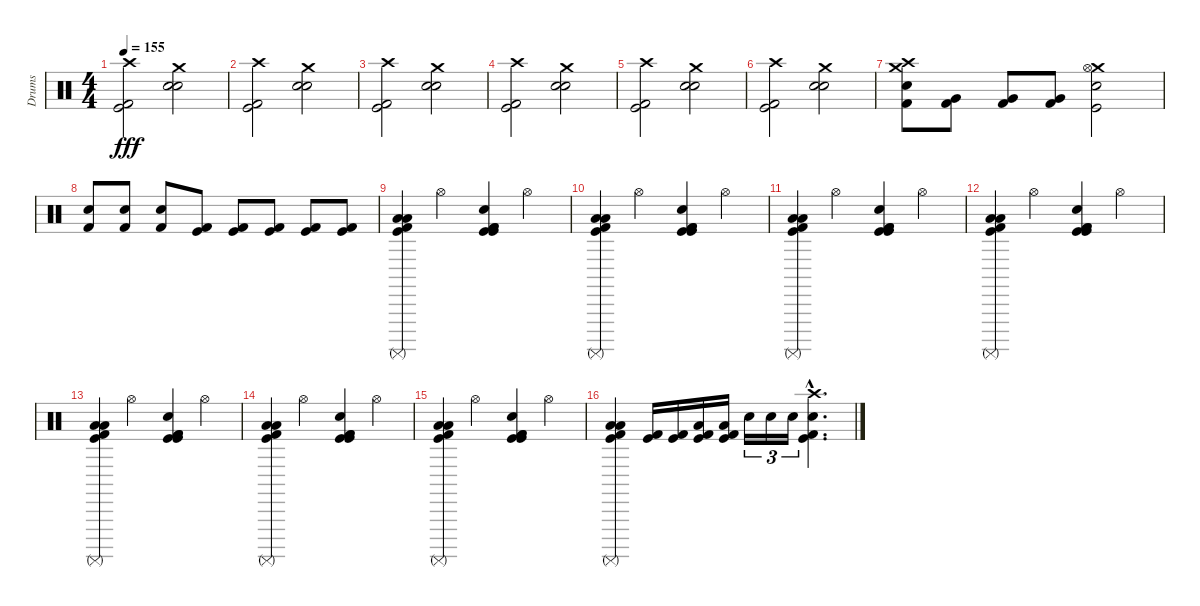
\track ("Drums" "Drums") {instrument percussion}
\staff {score}
\articulation defaults
\ts (4 4)
\tempo 155
\clef neutral
\ks c
("Crash high (hit)" "Kick (hit)" "Kick (hit) 2").2{dy fff} ("Crash medium (hit)" "Snare (hit) 2" "Electric Snare (hit)").2 |
("Crash high (hit)" "Kick (hit)" "Kick (hit) 2").2 ("Crash medium (hit)" "Snare (hit) 2" "Electric Snare (hit)").2 |
("Crash high (hit)" "Kick (hit)" "Kick (hit) 2").2 ("Crash medium (hit)" "Snare (hit) 2" "Electric Snare (hit)").2 |
("Crash high (hit)" "Kick (hit)" "Kick (hit) 2").2 ("Crash medium (hit)" "Snare (hit) 2" "Electric Snare (hit)").2 |
("Crash high (hit)" "Kick (hit)" "Kick (hit) 2").2 ("Crash medium (hit)" "Snare (hit) 2" "Electric Snare (hit)").2 |
("Crash high (hit)" "Kick (hit)" "Kick (hit) 2").2 ("Crash medium (hit)" "Snare (hit) 2" "Electric Snare (hit)").2 |
("Crash medium (hit)" "Crash high (hit)" "Snare (hit) 2" "Kick (hit) 2").8 ("Kick (hit) 2" "Very Low Tom (hit)").8 ("Kick (hit) 2" "Very Low Tom (hit)").8 ("Kick (hit) 2" "Very Low Tom (hit)").8 ("Crash medium (hit)" "Hi-Hat (open)" "Snare (hit) 2" "Kick (hit)").2 |
("Snare (hit) 2" "Kick (hit) 2").8 ("Snare (hit) 2" "Kick (hit) 2").8 ("Snare (hit) 2" "Kick (hit) 2").8 ("Kick (hit) 2" "Kick (hit)").8 ("Kick (hit) 2" "Kick (hit)").8 ("Kick (hit) 2" "Kick (hit)").8 ("Kick (hit) 2" "Kick (hit)").8 ("Kick (hit) 2" "Kick (hit)").8 |
("Kick (hit) 2" "Kick (hit)" "Low Floor Tom (hit)" "Surdo (mute)" "Low Floor Tom (hit)").4 "Hi-Hat (open)".4 ("Kick (hit)" "Snare (hit) 2" "Kick (hit) 2" "Kick (hit)" "Kick (hit) 2").4 "Hi-Hat (open)".4 |
("Kick (hit) 2" "Kick (hit)" "Low Floor Tom (hit)" "Surdo (mute)" "Low Floor Tom (hit)").4 "Hi-Hat (open)".4 ("Kick (hit)" "Snare (hit) 2" "Kick (hit) 2" "Kick (hit)" "Kick (hit) 2").4 "Hi-Hat (open)".4 |
("Kick (hit) 2" "Kick (hit)" "Low Floor Tom (hit)" "Surdo (mute)" "Low Floor Tom (hit)").4 "Hi-Hat (open)".4 ("Kick (hit)" "Snare (hit) 2" "Kick (hit) 2" "Kick (hit)" "Kick (hit) 2").4 "Hi-Hat (open)".4 |
("Kick (hit) 2" "Kick (hit)" "Low Floor Tom (hit)" "Surdo (mute)" "Low Floor Tom (hit)").4 "Hi-Hat (open)".4 ("Kick (hit)" "Snare (hit) 2" "Kick (hit) 2" "Kick (hit)" "Kick (hit) 2").4 "Hi-Hat (open)".4 |
("Kick (hit) 2" "Kick (hit)" "Low Floor Tom (hit)" "Surdo (mute)" "Low Floor Tom (hit)").4 "Hi-Hat (open)".4 ("Kick (hit)" "Snare (hit) 2" "Kick (hit) 2" "Kick (hit)" "Kick (hit) 2").4 "Hi-Hat (open)".4 |
("Kick (hit) 2" "Kick (hit)" "Low Floor Tom (hit)" "Surdo (mute)" "Low Floor Tom (hit)").4 "Hi-Hat (open)".4 ("Kick (hit)" "Snare (hit) 2" "Kick (hit) 2" "Kick (hit)" "Kick (hit) 2").4 "Hi-Hat (open)".4 |
("Kick (hit) 2" "Kick (hit)" "Low Floor Tom (hit)" "Surdo (mute)" "Low Floor Tom (hit)").4 "Hi-Hat (open)".4 ("Kick (hit)" "Snare (hit) 2" "Kick (hit) 2" "Kick (hit)" "Kick (hit) 2").4 "Hi-Hat (open)".4 |
("Kick (hit) 2" "Kick (hit)" "Low Floor Tom (hit)" "Surdo (mute)" "Low Floor Tom (hit)").4 ("Kick (hit)" "Kick (hit) 2").16 ("Kick (hit)" "Kick (hit) 2").16 ("Kick (hit)" "Kick (hit) 2" "Low Floor Tom (hit)").16 ("Kick (hit)" "Kick (hit) 2" "Low Floor Tom (hit)").16 "Electric Snare (hit)".16{tu (3 2)} "Electric Snare (hit)".16{tu (3 2)} "Electric Snare (hit)".16{tu (3 2)} ("Crash high (hit)"{hac} "Snare (hit) 2"{hac} "Kick (hit)"{hac} "Kick (hit) 2"{hac}).4{d}
